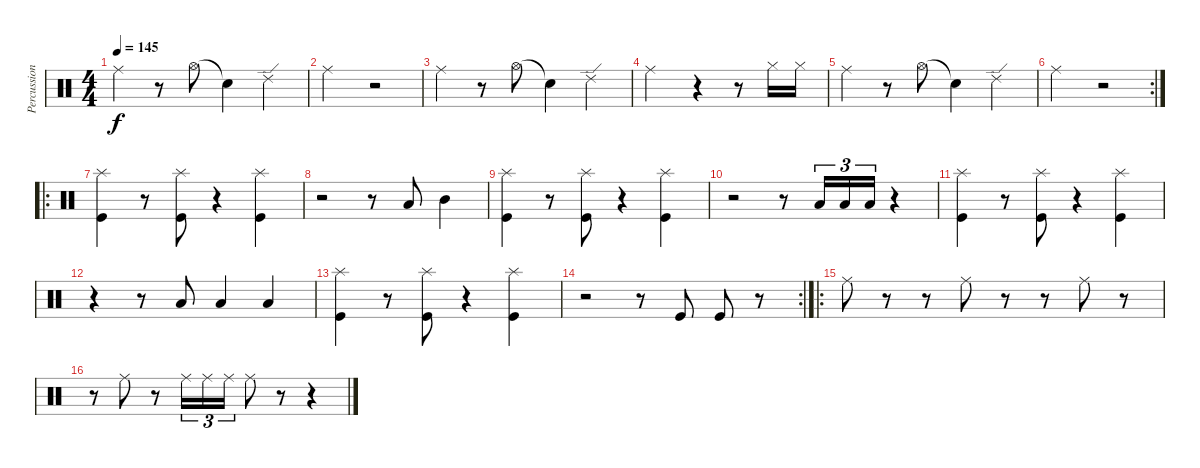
\track ("Percussion" "Percussion") {instrument percussion}
\staff {score}
\articulation defaults
\ts (4 4)
\tempo 145
\clef neutral
\ks c "Ride (middle)".4{dy f}
r.8 "Hi-Hat (open)".8 "Snare (hit)"{t}.4 "Ride (edge) 2".4 |
"Ride (middle)".2 r.2 |
"Ride (middle)".4 r.8 "Hi-Hat (open)".8 "Snare (hit)"{t}.4 "Ride (edge) 2".4 |
"Ride (middle)".2 r.4 r.8 "Hi-Hat (closed)".16 "Hi-Hat (closed)".16 |
"Ride (middle)".4 r.8 "Hi-Hat (open)".8 "Snare (hit)"{t}.4 "Ride (edge) 2".4 |
\rc 2 "Ride (middle)".2
r.2 |
\ro
("Splash (hit)" "Kick (hit)").4 r.8 ("Splash (hit)" "Kick (hit)").8 r.4 ("Splash (hit)" "Kick (hit)").4 |
r.2 r.8 "Low Tom (hit)".8 "Mid Tom (hit)".4 |
("Splash (hit)" "Kick (hit)").4 r.8 ("Splash (hit)" "Kick (hit)").8 r.4 ("Splash (hit)" "Kick (hit)").4 |
r.2 r.8 "Low Tom (hit)".16{tu (3 2)} "Low Tom (hit)".16{tu (3 2)} "Low Tom (hit)".16{tu (3 2)} r.4 |
("Splash (hit)" "Kick (hit)").4 r.8 ("Splash (hit)" "Kick (hit)").8 r.4 ("Splash (hit)" "Kick (hit)").4 |
r.4 r.8 "Low Tom (hit)".8 "Low Tom (hit)".4 "Low Tom (hit)".4 |
("Splash (hit)" "Kick (hit)").4 r.8 ("Splash (hit)" "Kick (hit)").8 r.4 ("Splash (hit)" "Kick (hit)").4 |
\rc 2
r.2 r.8 "Kick (hit)".8 "Kick (hit)".8 r.8 |
\ro "Ride (middle)".8
r.8 r.8 "Ride (middle)".8 r.8 r.8 "Ride (middle)".8 r.8 |
r.8 "Ride (middle)".8 r.8 "Ride (middle)".16{tu (3 2)} "Ride (middle)".16{tu (3 2)} "Ride (middle)".16{tu (3 2)} "Ride (middle)".8 r.8 r.4
